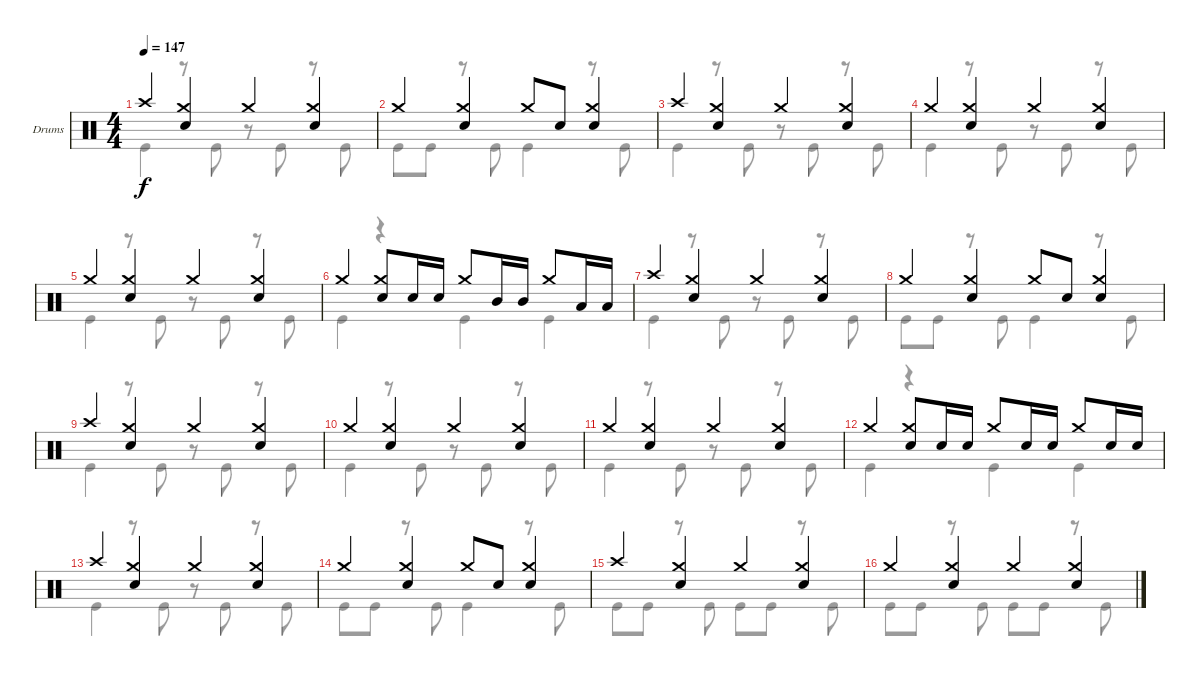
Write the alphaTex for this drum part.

\defaultSystemsLayout 4
\bracketExtendMode groupsimilarinstruments
\firstSystemTrackNameOrientation horizontal
\otherSystemsTrackNameOrientation horizontal
\track ("Drums" "Drums") {instrument percussion}
\staff {score}
\articulation defaults
\voice
\ts (4 4)
\tempo 147
\clef neutral
\ks c "Crash high (hit)".4{dy f}
("Crash medium (hit)" "Snare (hit) 2").4 "Crash medium (hit)".4 ("Crash medium (hit)" "Snare (hit) 2").4 |
"Crash medium (hit)".4 ("Crash medium (hit)" "Snare (hit) 2").4 "Crash medium (hit)".8 "Snare (hit) 2".8 ("Crash medium (hit)" "Snare (hit) 2").4 |
"Crash high (hit)".4 ("Crash medium (hit)" "Snare (hit) 2").4 "Crash medium (hit)".4 ("Crash medium (hit)" "Snare (hit) 2").4 |
"Crash medium (hit)".4 ("Crash medium (hit)" "Snare (hit) 2").4 "Crash medium (hit)".4 ("Crash medium (hit)" "Snare (hit) 2").4 |
"Crash medium (hit)".4 ("Crash medium (hit)" "Snare (hit) 2").4 "Crash medium (hit)".4 ("Crash medium (hit)" "Snare (hit) 2").4 |
"Crash medium (hit)".4 ("Crash medium (hit)" "Snare (hit) 2").8 "Snare (hit) 2".16 "Snare (hit) 2".16 "Crash medium (hit)".8 "Mid Tom (hit)".16 "Mid Tom (hit)".16 "Crash medium (hit)".8 "Low Tom (hit)".16 "Low Tom (hit)".16 |
"Crash high (hit)".4 ("Crash medium (hit)" "Snare (hit) 2").4 "Crash medium (hit)".4 ("Crash medium (hit)" "Snare (hit) 2").4 |
"Crash medium (hit)".4 ("Crash medium (hit)" "Snare (hit) 2").4 "Crash medium (hit)".8 "Snare (hit) 2".8 ("Crash medium (hit)" "Snare (hit) 2").4 |
"Crash high (hit)".4 ("Crash medium (hit)" "Snare (hit) 2").4 "Crash medium (hit)".4 ("Crash medium (hit)" "Snare (hit) 2").4 |
"Crash medium (hit)".4 ("Crash medium (hit)" "Snare (hit) 2").4 "Crash medium (hit)".4 ("Crash medium (hit)" "Snare (hit) 2").4 |
"Crash medium (hit)".4 ("Crash medium (hit)" "Snare (hit) 2").4 "Crash medium (hit)".4 ("Crash medium (hit)" "Snare (hit) 2").4 |
"Crash medium (hit)".4 ("Crash medium (hit)" "Snare (hit) 2").8 "Snare (hit) 2".16 "Snare (hit) 2".16 "Crash medium (hit)".8 "Snare (hit) 2".16 "Snare (hit) 2".16 "Crash medium (hit)".8 "Snare (hit) 2".16 "Snare (hit) 2".16 |
"Crash high (hit)".4 ("Crash medium (hit)" "Snare (hit) 2").4 "Crash medium (hit)".4 ("Crash medium (hit)" "Snare (hit) 2").4 |
"Crash medium (hit)".4 ("Crash medium (hit)" "Snare (hit) 2").4 "Crash medium (hit)".8 "Snare (hit) 2".8 ("Crash medium (hit)" "Snare (hit) 2").4 |
"Crash high (hit)".4 ("Crash medium (hit)" "Snare (hit) 2").4 "Crash medium (hit)".4 ("Crash medium (hit)" "Snare (hit) 2").4 |
"Crash medium (hit)".4 ("Crash medium (hit)" "Snare (hit) 2").4 "Crash medium (hit)".4 ("Crash medium (hit)" "Snare (hit) 2").4
\voice
\clef neutral
\ottava regular
\simile none
\ks c "Kick (hit)".4{dy f}
r.8 "Kick (hit)".8 r.8 "Kick (hit)".8 r.8 "Kick (hit)".8 |
"Kick (hit)".8 "Kick (hit)".8 r.8 "Kick (hit)".8 "Kick (hit)".4 r.8 "Kick (hit)".8 |
"Kick (hit)".4 r.8 "Kick (hit)".8 r.8 "Kick (hit)".8 r.8 "Kick (hit)".8 |
"Kick (hit)".4 r.8 "Kick (hit)".8 r.8 "Kick (hit)".8 r.8 "Kick (hit)".8 |
"Kick (hit)".4 r.8 "Kick (hit)".8 r.8 "Kick (hit)".8 r.8 "Kick (hit)".8 |
"Kick (hit)".4 r.4 "Kick (hit)".4 "Kick (hit)".4 |
"Kick (hit)".4 r.8 "Kick (hit)".8 r.8 "Kick (hit)".8 r.8 "Kick (hit)".8 |
"Kick (hit)".8 "Kick (hit)".8 r.8 "Kick (hit)".8 "Kick (hit)".4 r.8 "Kick (hit)".8 |
"Kick (hit)".4 r.8 "Kick (hit)".8 r.8 "Kick (hit)".8 r.8 "Kick (hit)".8 |
"Kick (hit)".4 r.8 "Kick (hit)".8 r.8 "Kick (hit)".8 r.8 "Kick (hit)".8 |
"Kick (hit)".4 r.8 "Kick (hit)".8 r.8 "Kick (hit)".8 r.8 "Kick (hit)".8 |
"Kick (hit)".4 r.4 "Kick (hit)".4 "Kick (hit)".4 |
"Kick (hit)".4 r.8 "Kick (hit)".8 r.8 "Kick (hit)".8 r.8 "Kick (hit)".8 |
"Kick (hit)".8 "Kick (hit)".8 r.8 "Kick (hit)".8 "Kick (hit)".4 r.8 "Kick (hit)".8 |
"Kick (hit)".8 "Kick (hit)".8 r.8 "Kick (hit)".8 "Kick (hit)".8 "Kick (hit)".8 r.8 "Kick (hit)".8 |
"Kick (hit)".8 "Kick (hit)".8 r.8 "Kick (hit)".8 "Kick (hit)".8 "Kick (hit)".8 r.8 "Kick (hit)".8
